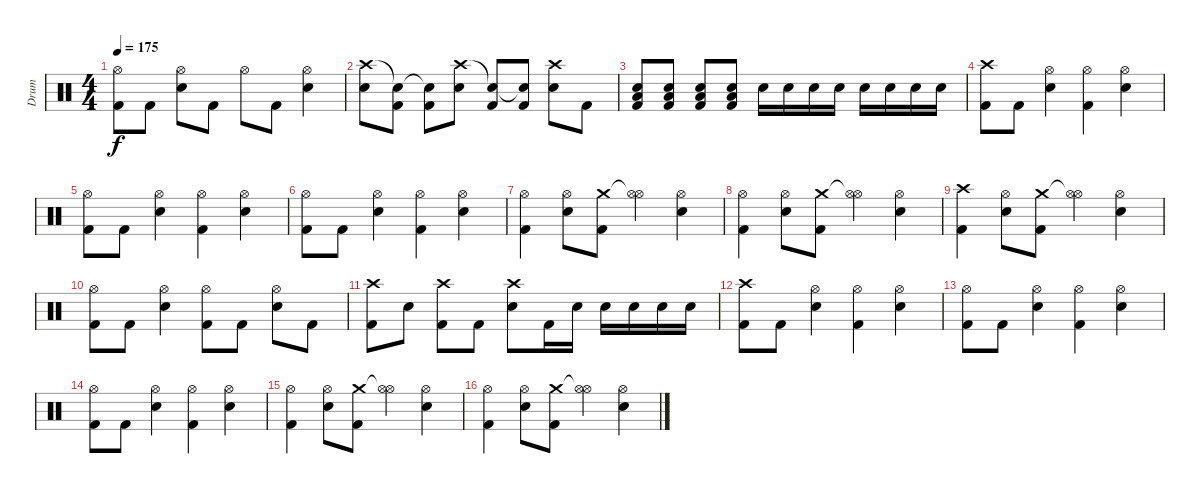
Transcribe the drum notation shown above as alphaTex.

\track ("Drum" "Drum") {instrument percussion}
\staff {score}
\articulation defaults
\ts (4 4)
\tempo 175
\clef neutral
\ks c
("Hi-Hat (open)" "Kick (hit) 2").8{dy f} "Kick (hit) 2".8 ("Hi-Hat (open)" "Electric Snare (hit)").8 "Kick (hit) 2".8 "Hi-Hat (open)".8 "Kick (hit) 2".8 ("Hi-Hat (open)" "Electric Snare (hit)").4 |
("Crash high (hit)" "Electric Snare (hit)").8 ("Snare (hit)"{t} "Kick (hit) 2").8 ("Snare (hit)"{t} "Kick (hit) 2").8 ("Crash high (hit)" "Electric Snare (hit)").8 ("Snare (hit)"{t} "Kick (hit) 2").8 ("Snare (hit)"{t} "Kick (hit) 2").8 ("Crash high (hit)" "Electric Snare (hit)").8 "Kick (hit) 2".8 |
("Electric Snare (hit)" "Low Floor Tom (hit)" "Kick (hit) 2").8 ("Electric Snare (hit)" "Low Floor Tom (hit)" "Kick (hit) 2").8 ("Electric Snare (hit)" "Low Floor Tom (hit)" "Kick (hit) 2").8 ("Electric Snare (hit)" "Low Floor Tom (hit)" "Kick (hit) 2").8 "Electric Snare (hit)".16 "Electric Snare (hit)".16 "Electric Snare (hit)".16 "Electric Snare (hit)".16 "Electric Snare (hit)".16 "Electric Snare (hit)".16 "Electric Snare (hit)".16 "Electric Snare (hit)".16 |
("Crash high (hit)" "Kick (hit) 2").8 "Kick (hit) 2".8 ("Hi-Hat (open)" "Electric Snare (hit)").4 ("Hi-Hat (open)" "Kick (hit) 2").4 ("Hi-Hat (open)" "Electric Snare (hit)").4 |
("Hi-Hat (open)" "Kick (hit) 2").8 "Kick (hit) 2".8 ("Hi-Hat (open)" "Electric Snare (hit)").4 ("Hi-Hat (open)" "Kick (hit) 2").4 ("Hi-Hat (open)" "Electric Snare (hit)").4 |
("Hi-Hat (open)" "Kick (hit) 2").8 "Kick (hit) 2".8 ("Hi-Hat (open)" "Electric Snare (hit)").4 ("Hi-Hat (open)" "Kick (hit) 2").4 ("Hi-Hat (open)" "Electric Snare (hit)").4 |
("Hi-Hat (open)" "Kick (hit) 2").4 ("Hi-Hat (open)" "Electric Snare (hit)").8 ("Crash medium (hit)" "Kick (hit) 2").8 ("Hi-Hat (open)"{t} "Hi-Hat (open)").4 ("Hi-Hat (open)" "Electric Snare (hit)").4 |
("Hi-Hat (open)" "Kick (hit) 2").4 ("Hi-Hat (open)" "Electric Snare (hit)").8 ("Crash medium (hit)" "Kick (hit) 2").8 ("Hi-Hat (open)"{t} "Hi-Hat (open)").4 ("Hi-Hat (open)" "Electric Snare (hit)").4 |
("Crash high (hit)" "Kick (hit) 2").4 ("Hi-Hat (open)" "Electric Snare (hit)").8 ("Crash medium (hit)" "Kick (hit) 2").8 ("Hi-Hat (open)"{t} "Hi-Hat (open)").4 ("Hi-Hat (open)" "Electric Snare (hit)").4 |
("Hi-Hat (open)" "Kick (hit) 2").8 "Kick (hit) 2".8 ("Hi-Hat (open)" "Electric Snare (hit)").4 ("Hi-Hat (open)" "Kick (hit) 2").8 "Kick (hit) 2".8 ("Hi-Hat (open)" "Electric Snare (hit)").8 "Kick (hit) 2".8 |
("Crash high (hit)" "Kick (hit) 2").8 "Electric Snare (hit)".8 ("Crash high (hit)" "Kick (hit) 2").8 "Kick (hit) 2".8 ("Crash high (hit)" "Electric Snare (hit)").8 "Kick (hit) 2".16 "Electric Snare (hit)".16 "Electric Snare (hit)".16 "Electric Snare (hit)".16 "Electric Snare (hit)".16 "Electric Snare (hit)".16 |
("Crash high (hit)" "Kick (hit) 2").8 "Kick (hit) 2".8 ("Hi-Hat (open)" "Electric Snare (hit)").4 ("Hi-Hat (open)" "Kick (hit) 2").4 ("Hi-Hat (open)" "Electric Snare (hit)").4 |
("Hi-Hat (open)" "Kick (hit) 2").8 "Kick (hit) 2".8 ("Hi-Hat (open)" "Electric Snare (hit)").4 ("Hi-Hat (open)" "Kick (hit) 2").4 ("Hi-Hat (open)" "Electric Snare (hit)").4 |
("Hi-Hat (open)" "Kick (hit) 2").8 "Kick (hit) 2".8 ("Hi-Hat (open)" "Electric Snare (hit)").4 ("Hi-Hat (open)" "Kick (hit) 2").4 ("Hi-Hat (open)" "Electric Snare (hit)").4 |
("Hi-Hat (open)" "Kick (hit) 2").4 ("Hi-Hat (open)" "Electric Snare (hit)").8 ("Crash medium (hit)" "Kick (hit) 2").8 ("Hi-Hat (open)"{t} "Hi-Hat (open)").4 ("Hi-Hat (open)" "Electric Snare (hit)").4 |
("Hi-Hat (open)" "Kick (hit) 2").4 ("Hi-Hat (open)" "Electric Snare (hit)").8 ("Crash medium (hit)" "Kick (hit) 2").8 ("Hi-Hat (open)"{t} "Hi-Hat (open)").4 ("Hi-Hat (open)" "Electric Snare (hit)").4
